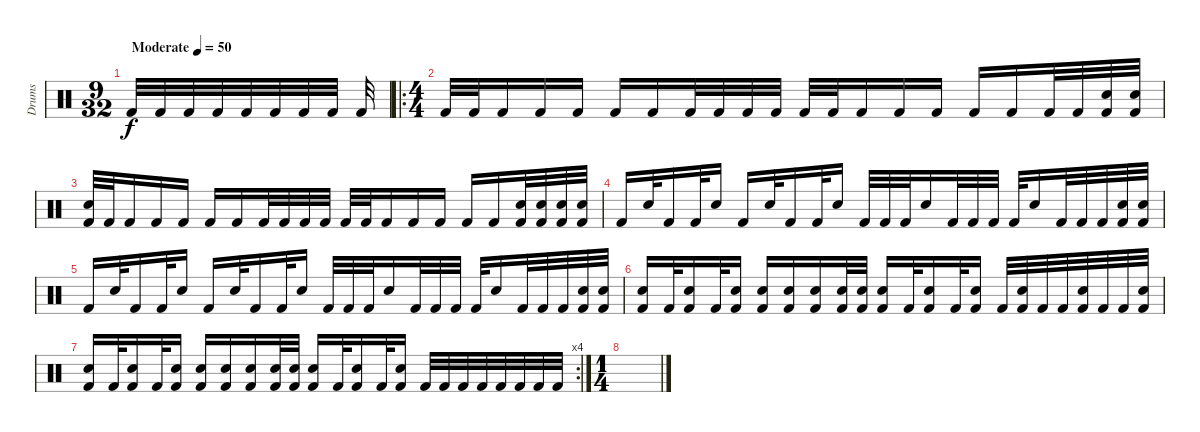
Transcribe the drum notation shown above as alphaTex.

\track ("Drums" "Drums") {instrument percussion}
\staff
\articulation defaults
\ts (9 32)
\tempo (50 "Moderate")
\clef neutral
\ks c "Kick (hit) 2".32{dy f} "Kick (hit) 2".32 "Kick (hit) 2".32 "Kick (hit) 2".32 "Kick (hit) 2".32 "Kick (hit) 2".32 "Kick (hit) 2".32 "Kick (hit) 2".32 "Kick (hit) 2".32
|
\ro
\ts (4 4)
"Kick (hit) 2".32 "Kick (hit) 2".32 "Kick (hit) 2".16 "Kick (hit) 2".16 "Kick (hit) 2".16 "Kick (hit) 2".16 "Kick (hit) 2".16 "Kick (hit) 2".32 "Kick (hit) 2".32 "Kick (hit) 2".32 "Kick (hit) 2".32 "Kick (hit) 2".32 "Kick (hit) 2".32 "Kick (hit) 2".16 "Kick (hit) 2".16 "Kick (hit) 2".16 "Kick (hit) 2".16 "Kick (hit) 2".16 "Kick (hit) 2".32 "Kick (hit) 2".32 ("Kick (hit) 2" "Snare (hit) 2").32 ("Kick (hit) 2" "Snare (hit) 2").32 |
("Kick (hit) 2" "Snare (hit) 2").32 "Kick (hit) 2".32 "Kick (hit) 2".16 "Kick (hit) 2".16 "Kick (hit) 2".16 "Kick (hit) 2".16 "Kick (hit) 2".16 "Kick (hit) 2".32 "Kick (hit) 2".32 "Kick (hit) 2".32 "Kick (hit) 2".32 "Kick (hit) 2".32 "Kick (hit) 2".32 "Kick (hit) 2".16 "Kick (hit) 2".16 "Kick (hit) 2".16 "Kick (hit) 2".16 "Kick (hit) 2".16 ("Kick (hit) 2" "Snare (hit) 2").32 ("Kick (hit) 2" "Snare (hit) 2").32 ("Kick (hit) 2" "Snare (hit) 2").32 ("Kick (hit) 2" "Snare (hit) 2").32 |
"Kick (hit) 2".16 "Snare (hit) 2".32 "Kick (hit) 2".16 "Kick (hit) 2".32 "Snare (hit) 2".16 "Kick (hit) 2".16 "Snare (hit) 2".32 "Kick (hit) 2".16 "Kick (hit) 2".32 "Snare (hit) 2".16 "Kick (hit) 2".32 "Kick (hit) 2".32 "Kick (hit) 2".32 "Snare (hit) 2".16 "Kick (hit) 2".32 "Kick (hit) 2".32 "Kick (hit) 2".32 "Kick (hit) 2".32 "Snare (hit) 2".16 "Kick (hit) 2".32 "Kick (hit) 2".32 "Kick (hit) 2".32 ("Kick (hit) 2" "Snare (hit) 2").32 ("Kick (hit) 2" "Snare (hit) 2").32 |
"Kick (hit) 2".16 "Snare (hit) 2".32 "Kick (hit) 2".16 "Kick (hit) 2".32 "Snare (hit) 2".16 "Kick (hit) 2".16 "Snare (hit) 2".32 "Kick (hit) 2".16 "Kick (hit) 2".32 "Snare (hit) 2".16 "Kick (hit) 2".32 "Kick (hit) 2".32 "Kick (hit) 2".32 "Snare (hit) 2".16 "Kick (hit) 2".32 "Kick (hit) 2".32 "Kick (hit) 2".32 "Kick (hit) 2".32 "Snare (hit) 2".16 "Kick (hit) 2".32 "Kick (hit) 2".32 "Kick (hit) 2".32 ("Kick (hit) 2" "Snare (hit) 2").32 ("Kick (hit) 2" "Snare (hit) 2").32 |
("Kick (hit) 2" "Snare (hit) 2").16 "Kick (hit) 2".32 ("Kick (hit) 2" "Snare (hit) 2").16 "Kick (hit) 2".32 ("Kick (hit) 2" "Snare (hit) 2").16 ("Kick (hit) 2" "Snare (hit) 2").16 ("Kick (hit) 2" "Snare (hit) 2").16 ("Kick (hit) 2" "Snare (hit) 2").16 ("Kick (hit) 2" "Snare (hit) 2").32 ("Kick (hit) 2" "Snare (hit) 2").32 ("Kick (hit) 2" "Snare (hit) 2").16 "Kick (hit) 2".32 ("Kick (hit) 2" "Snare (hit) 2").16 "Kick (hit) 2".32 ("Kick (hit) 2" "Snare (hit) 2").16 "Kick (hit) 2".32 ("Kick (hit) 2" "Snare (hit) 2").32 "Kick (hit) 2".32 "Kick (hit) 2".32 ("Kick (hit) 2" "Snare (hit) 2").32 "Kick (hit) 2".32 "Kick (hit) 2".32 ("Kick (hit) 2" "Snare (hit) 2").32 |
\rc 4
("Kick (hit) 2" "Snare (hit) 2").16 "Kick (hit) 2".32 ("Kick (hit) 2" "Snare (hit) 2").16 "Kick (hit) 2".32 ("Kick (hit) 2" "Snare (hit) 2").16 ("Kick (hit) 2" "Snare (hit) 2").16 ("Kick (hit) 2" "Snare (hit) 2").16 ("Kick (hit) 2" "Snare (hit) 2").16 ("Kick (hit) 2" "Snare (hit) 2").32 ("Kick (hit) 2" "Snare (hit) 2").32 ("Kick (hit) 2" "Snare (hit) 2").16 "Kick (hit) 2".32 ("Kick (hit) 2" "Snare (hit) 2").16 "Kick (hit) 2".32 ("Kick (hit) 2" "Snare (hit) 2").16 "Kick (hit) 2".32 "Kick (hit) 2".32 "Kick (hit) 2".32 "Kick (hit) 2".32 "Kick (hit) 2".32 "Kick (hit) 2".32 "Kick (hit) 2".32 "Kick (hit) 2".32 |
\ts (1 4)
